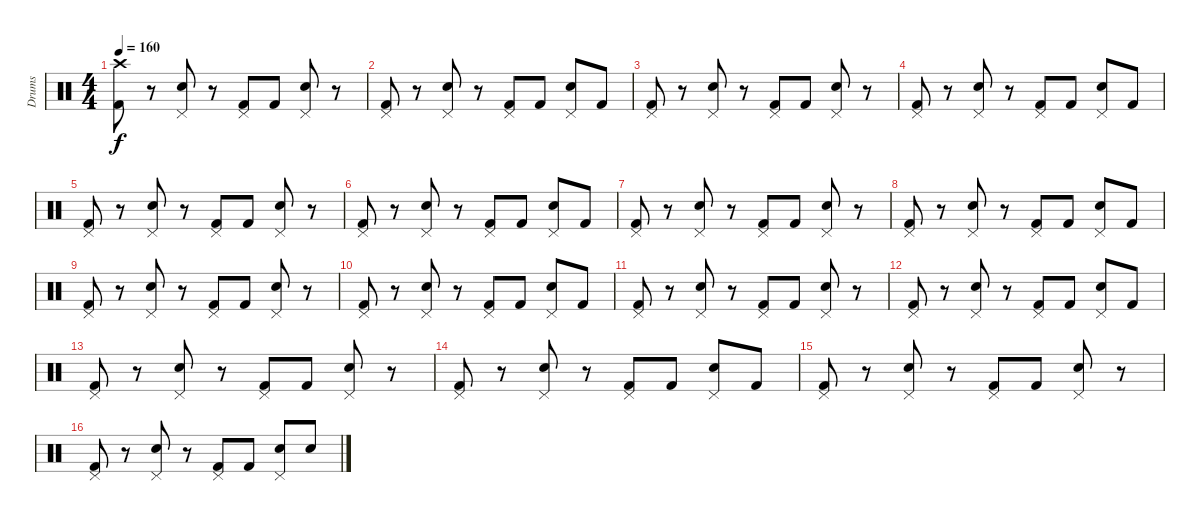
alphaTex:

\track ("Drums" "Drums") {instrument percussion}
\staff {score}
\articulation defaults
\ts (4 4)
\tempo 160
\clef neutral
\ks c
("Crash high (hit)" "Kick (hit) 2").8{dy f} r.8 ("Pedal Hi-Hat (hit)" "Snare (hit) 2").8 r.8 ("Pedal Hi-Hat (hit)" "Kick (hit) 2").8 "Kick (hit) 2".8 ("Pedal Hi-Hat (hit)" "Snare (hit) 2").8 r.8 |
("Pedal Hi-Hat (hit)" "Kick (hit) 2").8 r.8 ("Pedal Hi-Hat (hit)" "Snare (hit) 2").8 r.8 ("Pedal Hi-Hat (hit)" "Kick (hit) 2").8 "Kick (hit) 2".8 ("Pedal Hi-Hat (hit)" "Snare (hit) 2").8 "Kick (hit) 2".8 |
("Pedal Hi-Hat (hit)" "Kick (hit) 2").8 r.8 ("Pedal Hi-Hat (hit)" "Snare (hit) 2").8 r.8 ("Pedal Hi-Hat (hit)" "Kick (hit) 2").8 "Kick (hit) 2".8 ("Pedal Hi-Hat (hit)" "Snare (hit) 2").8 r.8 |
("Pedal Hi-Hat (hit)" "Kick (hit) 2").8 r.8 ("Pedal Hi-Hat (hit)" "Snare (hit) 2").8 r.8 ("Pedal Hi-Hat (hit)" "Kick (hit) 2").8 "Kick (hit) 2".8 ("Pedal Hi-Hat (hit)" "Snare (hit) 2").8 "Kick (hit) 2".8 |
("Pedal Hi-Hat (hit)" "Kick (hit) 2").8 r.8 ("Pedal Hi-Hat (hit)" "Snare (hit) 2").8 r.8 ("Pedal Hi-Hat (hit)" "Kick (hit) 2").8 "Kick (hit) 2".8 ("Pedal Hi-Hat (hit)" "Snare (hit) 2").8 r.8 |
("Pedal Hi-Hat (hit)" "Kick (hit) 2").8 r.8 ("Pedal Hi-Hat (hit)" "Snare (hit) 2").8 r.8 ("Pedal Hi-Hat (hit)" "Kick (hit) 2").8 "Kick (hit) 2".8 ("Pedal Hi-Hat (hit)" "Snare (hit) 2").8 "Kick (hit) 2".8 |
("Pedal Hi-Hat (hit)" "Kick (hit) 2").8 r.8 ("Pedal Hi-Hat (hit)" "Snare (hit) 2").8 r.8 ("Pedal Hi-Hat (hit)" "Kick (hit) 2").8 "Kick (hit) 2".8 ("Pedal Hi-Hat (hit)" "Snare (hit) 2").8 r.8 |
("Pedal Hi-Hat (hit)" "Kick (hit) 2").8 r.8 ("Pedal Hi-Hat (hit)" "Snare (hit) 2").8 r.8 ("Pedal Hi-Hat (hit)" "Kick (hit) 2").8 "Kick (hit) 2".8 ("Pedal Hi-Hat (hit)" "Snare (hit) 2").8 "Kick (hit) 2".8 |
("Pedal Hi-Hat (hit)" "Kick (hit) 2").8 r.8 ("Pedal Hi-Hat (hit)" "Snare (hit) 2").8 r.8 ("Pedal Hi-Hat (hit)" "Kick (hit) 2").8 "Kick (hit) 2".8 ("Pedal Hi-Hat (hit)" "Snare (hit) 2").8 r.8 |
("Pedal Hi-Hat (hit)" "Kick (hit) 2").8 r.8 ("Pedal Hi-Hat (hit)" "Snare (hit) 2").8 r.8 ("Pedal Hi-Hat (hit)" "Kick (hit) 2").8 "Kick (hit) 2".8 ("Pedal Hi-Hat (hit)" "Snare (hit) 2").8 "Kick (hit) 2".8 |
("Pedal Hi-Hat (hit)" "Kick (hit) 2").8 r.8 ("Pedal Hi-Hat (hit)" "Snare (hit) 2").8 r.8 ("Pedal Hi-Hat (hit)" "Kick (hit) 2").8 "Kick (hit) 2".8 ("Pedal Hi-Hat (hit)" "Snare (hit) 2").8 r.8 |
("Pedal Hi-Hat (hit)" "Kick (hit) 2").8 r.8 ("Pedal Hi-Hat (hit)" "Snare (hit) 2").8 r.8 ("Pedal Hi-Hat (hit)" "Kick (hit) 2").8 "Kick (hit) 2".8 ("Pedal Hi-Hat (hit)" "Snare (hit) 2").8 "Kick (hit) 2".8 |
("Pedal Hi-Hat (hit)" "Kick (hit) 2").8 r.8 ("Pedal Hi-Hat (hit)" "Snare (hit) 2").8 r.8 ("Pedal Hi-Hat (hit)" "Kick (hit) 2").8 "Kick (hit) 2".8 ("Pedal Hi-Hat (hit)" "Snare (hit) 2").8 r.8 |
("Pedal Hi-Hat (hit)" "Kick (hit) 2").8 r.8 ("Pedal Hi-Hat (hit)" "Snare (hit) 2").8 r.8 ("Pedal Hi-Hat (hit)" "Kick (hit) 2").8 "Kick (hit) 2".8 ("Pedal Hi-Hat (hit)" "Snare (hit) 2").8 "Kick (hit) 2".8 |
("Pedal Hi-Hat (hit)" "Kick (hit) 2").8 r.8 ("Pedal Hi-Hat (hit)" "Snare (hit) 2").8 r.8 ("Pedal Hi-Hat (hit)" "Kick (hit) 2").8 "Kick (hit) 2".8 ("Pedal Hi-Hat (hit)" "Snare (hit) 2").8 r.8 |
("Pedal Hi-Hat (hit)" "Kick (hit) 2").8 r.8 ("Pedal Hi-Hat (hit)" "Snare (hit) 2").8 r.8 ("Pedal Hi-Hat (hit)" "Kick (hit) 2").8 "Kick (hit) 2".8 ("Pedal Hi-Hat (hit)" "Snare (hit) 2").8 "Snare (hit) 2".8
